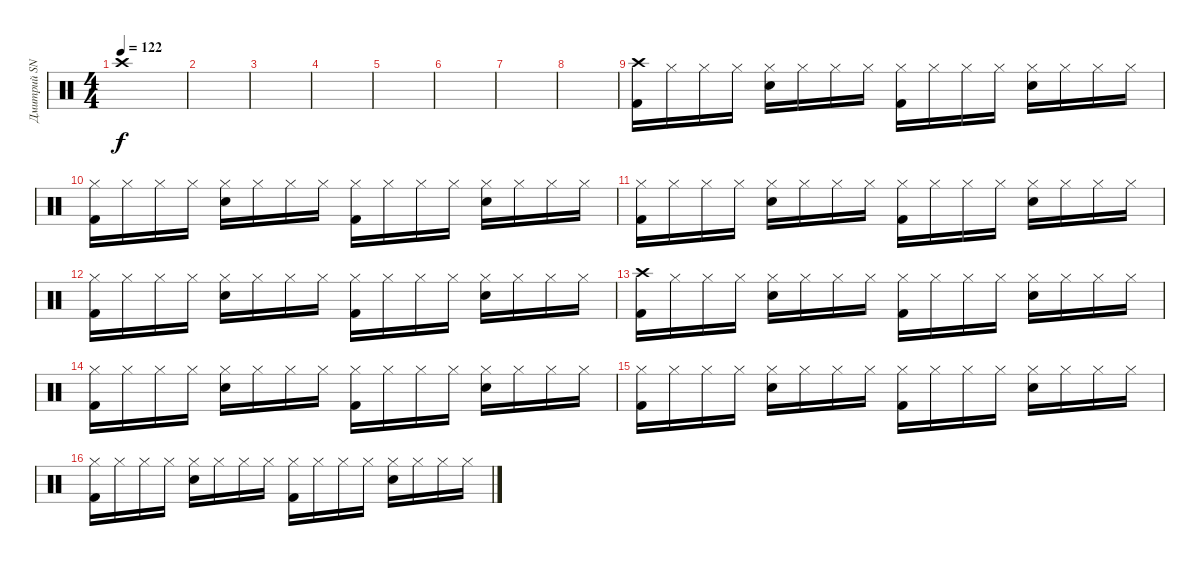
\track ("Дмитрий SNAKE Хакимов" "Дмитрий SN") {instrument percussion}
\staff {score}
\articulation defaults
\ts (4 4)
\tempo 122
\clef neutral
\ks c "Crash high (hit)".1{dy f}
|
|
|
|
|
|
|
|
("Crash high (hit)" "Kick (hit) 2").16 "Hi-Hat (closed)".16 "Hi-Hat (closed)".16 "Hi-Hat (closed)".16 ("Hi-Hat (closed)" "Snare (hit) 2").16 "Hi-Hat (closed)".16 "Hi-Hat (closed)".16 "Hi-Hat (closed)".16 ("Hi-Hat (closed)" "Kick (hit) 2").16 "Hi-Hat (closed)".16 "Hi-Hat (closed)".16 "Hi-Hat (closed)".16 ("Hi-Hat (closed)" "Snare (hit) 2").16 "Hi-Hat (closed)".16 "Hi-Hat (closed)".16 "Hi-Hat (closed)".16 |
("Hi-Hat (closed)" "Kick (hit) 2").16 "Hi-Hat (closed)".16 "Hi-Hat (closed)".16 "Hi-Hat (closed)".16 ("Hi-Hat (closed)" "Snare (hit) 2").16 "Hi-Hat (closed)".16 "Hi-Hat (closed)".16 "Hi-Hat (closed)".16 ("Hi-Hat (closed)" "Kick (hit) 2").16 "Hi-Hat (closed)".16 "Hi-Hat (closed)".16 "Hi-Hat (closed)".16 ("Hi-Hat (closed)" "Snare (hit) 2").16 "Hi-Hat (closed)".16 "Hi-Hat (closed)".16 "Hi-Hat (closed)".16 |
("Hi-Hat (closed)" "Kick (hit) 2").16 "Hi-Hat (closed)".16 "Hi-Hat (closed)".16 "Hi-Hat (closed)".16 ("Hi-Hat (closed)" "Snare (hit) 2").16 "Hi-Hat (closed)".16 "Hi-Hat (closed)".16 "Hi-Hat (closed)".16 ("Hi-Hat (closed)" "Kick (hit) 2").16 "Hi-Hat (closed)".16 "Hi-Hat (closed)".16 "Hi-Hat (closed)".16 ("Hi-Hat (closed)" "Snare (hit) 2").16 "Hi-Hat (closed)".16 "Hi-Hat (closed)".16 "Hi-Hat (closed)".16 |
("Hi-Hat (closed)" "Kick (hit) 2").16 "Hi-Hat (closed)".16 "Hi-Hat (closed)".16 "Hi-Hat (closed)".16 ("Hi-Hat (closed)" "Snare (hit) 2").16 "Hi-Hat (closed)".16 "Hi-Hat (closed)".16 "Hi-Hat (closed)".16 ("Hi-Hat (closed)" "Kick (hit) 2").16 "Hi-Hat (closed)".16 "Hi-Hat (closed)".16 "Hi-Hat (closed)".16 ("Hi-Hat (closed)" "Snare (hit) 2").16 "Hi-Hat (closed)".16 "Hi-Hat (closed)".16 "Hi-Hat (closed)".16 |
("Crash high (hit)" "Kick (hit) 2").16 "Hi-Hat (closed)".16 "Hi-Hat (closed)".16 "Hi-Hat (closed)".16 ("Hi-Hat (closed)" "Snare (hit) 2").16 "Hi-Hat (closed)".16 "Hi-Hat (closed)".16 "Hi-Hat (closed)".16 ("Hi-Hat (closed)" "Kick (hit) 2").16 "Hi-Hat (closed)".16 "Hi-Hat (closed)".16 "Hi-Hat (closed)".16 ("Hi-Hat (closed)" "Snare (hit) 2").16 "Hi-Hat (closed)".16 "Hi-Hat (closed)".16 "Hi-Hat (closed)".16 |
("Hi-Hat (closed)" "Kick (hit) 2").16 "Hi-Hat (closed)".16 "Hi-Hat (closed)".16 "Hi-Hat (closed)".16 ("Hi-Hat (closed)" "Snare (hit) 2").16 "Hi-Hat (closed)".16 "Hi-Hat (closed)".16 "Hi-Hat (closed)".16 ("Hi-Hat (closed)" "Kick (hit) 2").16 "Hi-Hat (closed)".16 "Hi-Hat (closed)".16 "Hi-Hat (closed)".16 ("Hi-Hat (closed)" "Snare (hit) 2").16 "Hi-Hat (closed)".16 "Hi-Hat (closed)".16 "Hi-Hat (closed)".16 |
("Hi-Hat (closed)" "Kick (hit) 2").16 "Hi-Hat (closed)".16 "Hi-Hat (closed)".16 "Hi-Hat (closed)".16 ("Hi-Hat (closed)" "Snare (hit) 2").16 "Hi-Hat (closed)".16 "Hi-Hat (closed)".16 "Hi-Hat (closed)".16 ("Hi-Hat (closed)" "Kick (hit) 2").16 "Hi-Hat (closed)".16 "Hi-Hat (closed)".16 "Hi-Hat (closed)".16 ("Hi-Hat (closed)" "Snare (hit) 2").16 "Hi-Hat (closed)".16 "Hi-Hat (closed)".16 "Hi-Hat (closed)".16 |
("Hi-Hat (closed)" "Kick (hit) 2").16 "Hi-Hat (closed)".16 "Hi-Hat (closed)".16 "Hi-Hat (closed)".16 ("Hi-Hat (closed)" "Snare (hit) 2").16 "Hi-Hat (closed)".16 "Hi-Hat (closed)".16 "Hi-Hat (closed)".16 ("Hi-Hat (closed)" "Kick (hit) 2").16 "Hi-Hat (closed)".16 "Hi-Hat (closed)".16 "Hi-Hat (closed)".16 ("Hi-Hat (closed)" "Snare (hit) 2").16 "Hi-Hat (closed)".16 "Hi-Hat (closed)".16 "Hi-Hat (closed)".16
